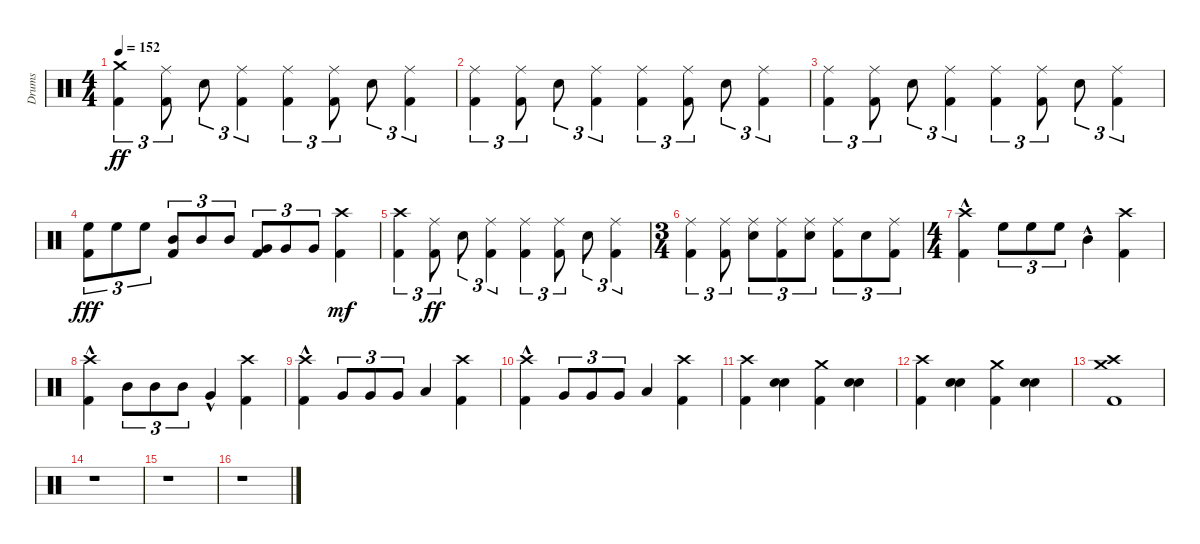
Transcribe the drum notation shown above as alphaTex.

\track ("Drums" "Drums") {instrument percussion}
\staff {score}
\articulation defaults
\ts (4 4)
\tempo 152
\clef neutral
\ks c
("Kick (hit) 2" "Crash medium (hit)").4{tu (3 2) dy ff} ("Kick (hit) 2" "Ride (middle)").8{tu (3 2)} "Snare (hit) 2".8{tu (3 2)} ("Kick (hit) 2" "Ride (middle)").4{tu (3 2)} ("Kick (hit) 2" "Ride (middle)").4{tu (3 2)} ("Kick (hit) 2" "Ride (middle)").8{tu (3 2)} "Snare (hit) 2".8{tu (3 2)} ("Kick (hit) 2" "Ride (middle)").4{tu (3 2)} |
("Kick (hit) 2" "Ride (middle)").4{tu (3 2)} ("Kick (hit) 2" "Ride (middle)").8{tu (3 2)} "Snare (hit) 2".8{tu (3 2)} ("Kick (hit) 2" "Ride (middle)").4{tu (3 2)} ("Kick (hit) 2" "Ride (middle)").4{tu (3 2)} ("Kick (hit) 2" "Ride (middle)").8{tu (3 2)} "Snare (hit) 2".8{tu (3 2)} ("Kick (hit) 2" "Ride (middle)").4{tu (3 2)} |
("Kick (hit) 2" "Ride (middle)").4{tu (3 2)} ("Kick (hit) 2" "Ride (middle)").8{tu (3 2)} "Snare (hit) 2".8{tu (3 2)} ("Kick (hit) 2" "Ride (middle)").4{tu (3 2)} ("Kick (hit) 2" "Ride (middle)").4{tu (3 2)} ("Kick (hit) 2" "Ride (middle)").8{tu (3 2)} "Snare (hit) 2".8{tu (3 2)} ("Kick (hit) 2" "Ride (middle)").4{tu (3 2)} |
("Kick (hit) 2" "High Floor Tom (hit)").8{tu (3 2) dy fff} "High Floor Tom (hit)".8{tu (3 2)} "High Floor Tom (hit)".8{tu (3 2)} ("Kick (hit) 2" "Mid Tom (hit)").8{tu (3 2)} "Mid Tom (hit)".8{tu (3 2)} "Mid Tom (hit)".8{tu (3 2)} ("Kick (hit) 2" "Very Low Tom (hit)").8{tu (3 2)} "Very Low Tom (hit)".8{tu (3 2)} "Very Low Tom (hit)".8{tu (3 2)} ("Kick (hit) 2" "Crash high (hit)").4{dy mf} |
("Kick (hit) 2" "Crash high (hit)").4{tu (3 2)} ("Kick (hit) 2" "Ride (middle)").8{tu (3 2) dy ff} "Snare (hit) 2".8{tu (3 2)} ("Kick (hit) 2" "Ride (middle)").4{tu (3 2)} ("Kick (hit) 2" "Ride (middle)").4{tu (3 2)} ("Kick (hit) 2" "Ride (middle)").8{tu (3 2)} "Snare (hit) 2".8{tu (3 2)} ("Kick (hit) 2" "Ride (middle)").4{tu (3 2)} |
\ts (3 4)
("Kick (hit) 2" "Ride (middle)").4{tu (3 2)} ("Kick (hit) 2" "Ride (middle)").8{tu (3 2)} ("Snare (hit) 2" "Ride (middle)").8{tu (3 2)} ("Kick (hit) 2" "Ride (middle)").8{tu (3 2)} ("Snare (hit) 2" "Ride (middle)").8{tu (3 2)} ("Kick (hit) 2" "Ride (middle)").8{tu (3 2)} "Snare (hit) 2".8{tu (3 2)} ("Kick (hit) 2" "Ride (middle)").8{tu (3 2)} |
\ts (4 4)
("Kick (hit) 2"{hac} "Crash high (hit)"{hac}).4 "High Floor Tom (hit)".8{tu (3 2)} "High Floor Tom (hit)".8{tu (3 2)} "High Floor Tom (hit)".8{tu (3 2)} "Mid Tom (hit)"{hac}.4 ("Kick (hit) 2" "Crash high (hit)").4 |
("Kick (hit) 2"{hac} "Crash high (hit)"{hac}).4 "Mid Tom (hit)".8{tu (3 2)} "Mid Tom (hit)".8{tu (3 2)} "Mid Tom (hit)".8{tu (3 2)} "Very Low Tom (hit)"{hac}.4 ("Kick (hit) 2" "Crash high (hit)").4 |
("Kick (hit) 2"{hac} "Crash high (hit)"{hac}).4 "Very Low Tom (hit)".8{tu (3 2)} "Very Low Tom (hit)".8{tu (3 2)} "Very Low Tom (hit)".8{tu (3 2)} "Low Floor Tom (hit)".4 ("Kick (hit) 2" "Crash high (hit)").4 |
("Kick (hit) 2"{hac} "Crash high (hit)"{hac}).4 "Very Low Tom (hit)".8{tu (3 2)} "Very Low Tom (hit)".8{tu (3 2)} "Very Low Tom (hit)".8{tu (3 2)} "Low Floor Tom (hit)".4 ("Kick (hit) 2" "Crash high (hit)").4 |
("Kick (hit) 2" "Crash high (hit)").4 ("Snare (hit) 2" "Snare (hit) 2").4 ("Kick (hit) 2" "Crash medium (hit)").4 ("Snare (hit) 2" "Snare (hit) 2").4 |
("Kick (hit) 2" "Crash high (hit)").4 ("Snare (hit) 2" "Snare (hit) 2").4 ("Kick (hit) 2" "Crash medium (hit)").4 ("Snare (hit) 2" "Snare (hit) 2").4 |
("Kick (hit) 2" "Crash high (hit)" "Crash medium (hit)").1 |
r.1 |
r.1 |
r.1
